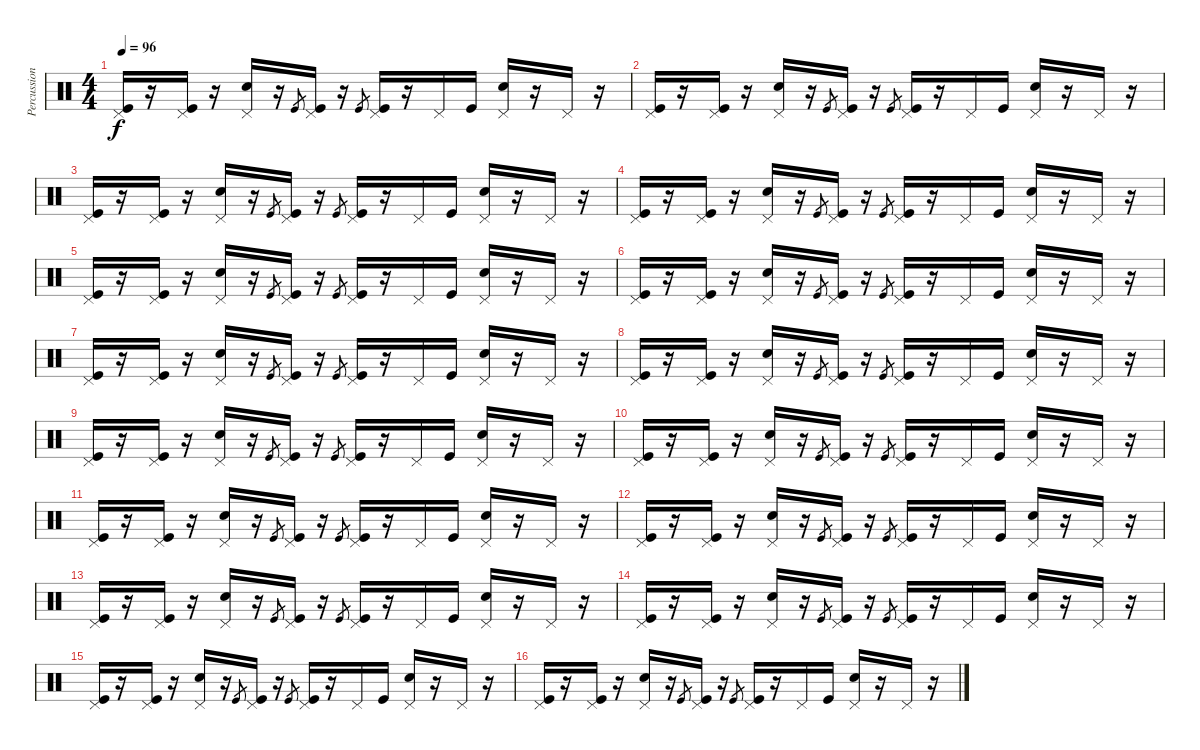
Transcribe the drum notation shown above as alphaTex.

\track ("Percussions" "Percussion") {instrument percussion}
\staff {score}
\articulation defaults
\ts (4 4)
\tempo 96
\clef neutral
\ks c
("Pedal Hi-Hat (hit)" "Kick (hit)").16{dy f} r.16 ("Pedal Hi-Hat (hit)" "Kick (hit)").16 r.16 ("Pedal Hi-Hat (hit)" "Electric Snare (hit)").16 r.16 "Kick (hit)".8{gr} ("Pedal Hi-Hat (hit)" "Kick (hit)").16 r.16 "Kick (hit)".8{gr} ("Pedal Hi-Hat (hit)" "Kick (hit)").16 r.16 "Pedal Hi-Hat (hit)".16 "Kick (hit)".16 ("Pedal Hi-Hat (hit)" "Electric Snare (hit)").16 r.16 "Pedal Hi-Hat (hit)".16 r.16 |
("Pedal Hi-Hat (hit)" "Kick (hit)").16 r.16 ("Pedal Hi-Hat (hit)" "Kick (hit)").16 r.16 ("Pedal Hi-Hat (hit)" "Electric Snare (hit)").16 r.16 "Kick (hit)".8{gr} ("Pedal Hi-Hat (hit)" "Kick (hit)").16 r.16 "Kick (hit)".8{gr} ("Pedal Hi-Hat (hit)" "Kick (hit)").16 r.16 "Pedal Hi-Hat (hit)".16 "Kick (hit)".16 ("Pedal Hi-Hat (hit)" "Electric Snare (hit)").16 r.16 "Pedal Hi-Hat (hit)".16 r.16 |
("Pedal Hi-Hat (hit)" "Kick (hit)").16 r.16 ("Pedal Hi-Hat (hit)" "Kick (hit)").16 r.16 ("Pedal Hi-Hat (hit)" "Electric Snare (hit)").16 r.16 "Kick (hit)".8{gr} ("Pedal Hi-Hat (hit)" "Kick (hit)").16 r.16 "Kick (hit)".8{gr} ("Pedal Hi-Hat (hit)" "Kick (hit)").16 r.16 "Pedal Hi-Hat (hit)".16 "Kick (hit)".16 ("Pedal Hi-Hat (hit)" "Electric Snare (hit)").16 r.16 "Pedal Hi-Hat (hit)".16 r.16 |
("Pedal Hi-Hat (hit)" "Kick (hit)").16 r.16 ("Pedal Hi-Hat (hit)" "Kick (hit)").16 r.16 ("Pedal Hi-Hat (hit)" "Electric Snare (hit)").16 r.16 "Kick (hit)".8{gr} ("Pedal Hi-Hat (hit)" "Kick (hit)").16 r.16 "Kick (hit)".8{gr} ("Pedal Hi-Hat (hit)" "Kick (hit)").16 r.16 "Pedal Hi-Hat (hit)".16 "Kick (hit)".16 ("Pedal Hi-Hat (hit)" "Electric Snare (hit)").16 r.16 "Pedal Hi-Hat (hit)".16 r.16 |
("Pedal Hi-Hat (hit)" "Kick (hit)").16 r.16 ("Pedal Hi-Hat (hit)" "Kick (hit)").16 r.16 ("Pedal Hi-Hat (hit)" "Electric Snare (hit)").16 r.16 "Kick (hit)".8{gr} ("Pedal Hi-Hat (hit)" "Kick (hit)").16 r.16 "Kick (hit)".8{gr} ("Pedal Hi-Hat (hit)" "Kick (hit)").16 r.16 "Pedal Hi-Hat (hit)".16 "Kick (hit)".16 ("Pedal Hi-Hat (hit)" "Electric Snare (hit)").16 r.16 "Pedal Hi-Hat (hit)".16 r.16 |
("Pedal Hi-Hat (hit)" "Kick (hit)").16 r.16 ("Pedal Hi-Hat (hit)" "Kick (hit)").16 r.16 ("Pedal Hi-Hat (hit)" "Electric Snare (hit)").16 r.16 "Kick (hit)".8{gr} ("Pedal Hi-Hat (hit)" "Kick (hit)").16 r.16 "Kick (hit)".8{gr} ("Pedal Hi-Hat (hit)" "Kick (hit)").16 r.16 "Pedal Hi-Hat (hit)".16 "Kick (hit)".16 ("Pedal Hi-Hat (hit)" "Electric Snare (hit)").16 r.16 "Pedal Hi-Hat (hit)".16 r.16 |
("Pedal Hi-Hat (hit)" "Kick (hit)").16 r.16 ("Pedal Hi-Hat (hit)" "Kick (hit)").16 r.16 ("Pedal Hi-Hat (hit)" "Electric Snare (hit)").16 r.16 "Kick (hit)".8{gr} ("Pedal Hi-Hat (hit)" "Kick (hit)").16 r.16 "Kick (hit)".8{gr} ("Pedal Hi-Hat (hit)" "Kick (hit)").16 r.16 "Pedal Hi-Hat (hit)".16 "Kick (hit)".16 ("Pedal Hi-Hat (hit)" "Electric Snare (hit)").16 r.16 "Pedal Hi-Hat (hit)".16 r.16 |
("Pedal Hi-Hat (hit)" "Kick (hit)").16 r.16 ("Pedal Hi-Hat (hit)" "Kick (hit)").16 r.16 ("Pedal Hi-Hat (hit)" "Electric Snare (hit)").16 r.16 "Kick (hit)".8{gr} ("Pedal Hi-Hat (hit)" "Kick (hit)").16 r.16 "Kick (hit)".8{gr} ("Pedal Hi-Hat (hit)" "Kick (hit)").16 r.16 "Pedal Hi-Hat (hit)".16 "Kick (hit)".16 ("Pedal Hi-Hat (hit)" "Electric Snare (hit)").16 r.16 "Pedal Hi-Hat (hit)".16 r.16 |
("Pedal Hi-Hat (hit)" "Kick (hit)").16 r.16 ("Pedal Hi-Hat (hit)" "Kick (hit)").16 r.16 ("Pedal Hi-Hat (hit)" "Electric Snare (hit)").16 r.16 "Kick (hit)".8{gr} ("Pedal Hi-Hat (hit)" "Kick (hit)").16 r.16 "Kick (hit)".8{gr} ("Pedal Hi-Hat (hit)" "Kick (hit)").16 r.16 "Pedal Hi-Hat (hit)".16 "Kick (hit)".16 ("Pedal Hi-Hat (hit)" "Electric Snare (hit)").16 r.16 "Pedal Hi-Hat (hit)".16 r.16 |
("Pedal Hi-Hat (hit)" "Kick (hit)").16 r.16 ("Pedal Hi-Hat (hit)" "Kick (hit)").16 r.16 ("Pedal Hi-Hat (hit)" "Electric Snare (hit)").16 r.16 "Kick (hit)".8{gr} ("Pedal Hi-Hat (hit)" "Kick (hit)").16 r.16 "Kick (hit)".8{gr} ("Pedal Hi-Hat (hit)" "Kick (hit)").16 r.16 "Pedal Hi-Hat (hit)".16 "Kick (hit)".16 ("Pedal Hi-Hat (hit)" "Electric Snare (hit)").16 r.16 "Pedal Hi-Hat (hit)".16 r.16 |
("Pedal Hi-Hat (hit)" "Kick (hit)").16 r.16 ("Pedal Hi-Hat (hit)" "Kick (hit)").16 r.16 ("Pedal Hi-Hat (hit)" "Electric Snare (hit)").16 r.16 "Kick (hit)".8{gr} ("Pedal Hi-Hat (hit)" "Kick (hit)").16 r.16 "Kick (hit)".8{gr} ("Pedal Hi-Hat (hit)" "Kick (hit)").16 r.16 "Pedal Hi-Hat (hit)".16 "Kick (hit)".16 ("Pedal Hi-Hat (hit)" "Electric Snare (hit)").16 r.16 "Pedal Hi-Hat (hit)".16 r.16 |
("Pedal Hi-Hat (hit)" "Kick (hit)").16 r.16 ("Pedal Hi-Hat (hit)" "Kick (hit)").16 r.16 ("Pedal Hi-Hat (hit)" "Electric Snare (hit)").16 r.16 "Kick (hit)".8{gr} ("Pedal Hi-Hat (hit)" "Kick (hit)").16 r.16 "Kick (hit)".8{gr} ("Pedal Hi-Hat (hit)" "Kick (hit)").16 r.16 "Pedal Hi-Hat (hit)".16 "Kick (hit)".16 ("Pedal Hi-Hat (hit)" "Electric Snare (hit)").16 r.16 "Pedal Hi-Hat (hit)".16 r.16 |
("Pedal Hi-Hat (hit)" "Kick (hit)").16 r.16 ("Pedal Hi-Hat (hit)" "Kick (hit)").16 r.16 ("Pedal Hi-Hat (hit)" "Electric Snare (hit)").16 r.16 "Kick (hit)".8{gr} ("Pedal Hi-Hat (hit)" "Kick (hit)").16 r.16 "Kick (hit)".8{gr} ("Pedal Hi-Hat (hit)" "Kick (hit)").16 r.16 "Pedal Hi-Hat (hit)".16 "Kick (hit)".16 ("Pedal Hi-Hat (hit)" "Electric Snare (hit)").16 r.16 "Pedal Hi-Hat (hit)".16 r.16 |
("Pedal Hi-Hat (hit)" "Kick (hit)").16 r.16 ("Pedal Hi-Hat (hit)" "Kick (hit)").16 r.16 ("Pedal Hi-Hat (hit)" "Electric Snare (hit)").16 r.16 "Kick (hit)".8{gr} ("Pedal Hi-Hat (hit)" "Kick (hit)").16 r.16 "Kick (hit)".8{gr} ("Pedal Hi-Hat (hit)" "Kick (hit)").16 r.16 "Pedal Hi-Hat (hit)".16 "Kick (hit)".16 ("Pedal Hi-Hat (hit)" "Electric Snare (hit)").16 r.16 "Pedal Hi-Hat (hit)".16 r.16 |
("Pedal Hi-Hat (hit)" "Kick (hit)").16 r.16 ("Pedal Hi-Hat (hit)" "Kick (hit)").16 r.16 ("Pedal Hi-Hat (hit)" "Electric Snare (hit)").16 r.16 "Kick (hit)".8{gr} ("Pedal Hi-Hat (hit)" "Kick (hit)").16 r.16 "Kick (hit)".8{gr} ("Pedal Hi-Hat (hit)" "Kick (hit)").16 r.16 "Pedal Hi-Hat (hit)".16 "Kick (hit)".16 ("Pedal Hi-Hat (hit)" "Electric Snare (hit)").16 r.16 "Pedal Hi-Hat (hit)".16 r.16 |
("Pedal Hi-Hat (hit)" "Kick (hit)").16 r.16 ("Pedal Hi-Hat (hit)" "Kick (hit)").16 r.16 ("Pedal Hi-Hat (hit)" "Electric Snare (hit)").16 r.16 "Kick (hit)".8{gr} ("Pedal Hi-Hat (hit)" "Kick (hit)").16 r.16 "Kick (hit)".8{gr} ("Pedal Hi-Hat (hit)" "Kick (hit)").16 r.16 "Pedal Hi-Hat (hit)".16 "Kick (hit)".16 ("Pedal Hi-Hat (hit)" "Electric Snare (hit)").16 r.16 "Pedal Hi-Hat (hit)".16 r.16
